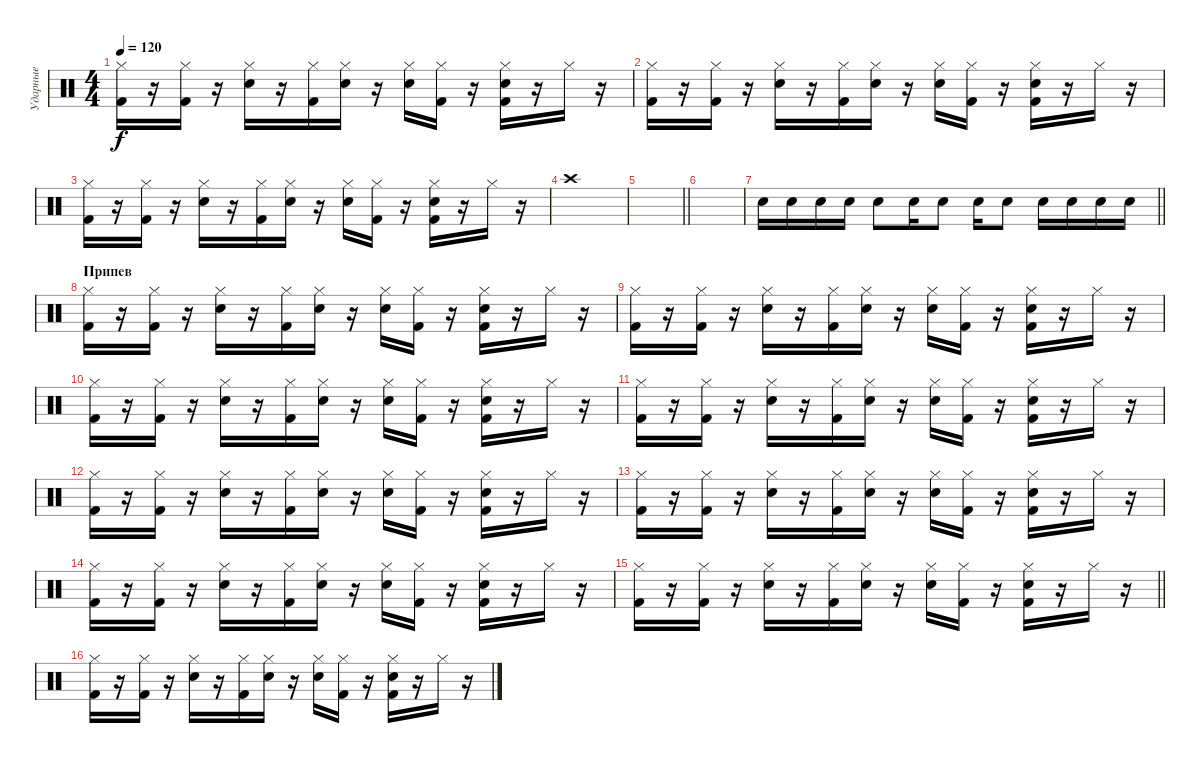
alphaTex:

\track ("Ударные" "Ударные") {instrument percussion}
\staff {score}
\articulation defaults
\ts (4 4)
\tempo 120
\clef neutral
\ks c
("Hi-Hat (closed)" "Kick (hit) 2").16{dy f} r.16 ("Hi-Hat (closed)" "Kick (hit) 2").16 r.16 ("Hi-Hat (closed)" "Electric Snare (hit)").16 r.16 ("Hi-Hat (closed)" "Kick (hit) 2").16 ("Hi-Hat (closed)" "Electric Snare (hit)").16 r.16 ("Hi-Hat (closed)" "Electric Snare (hit)").16 ("Hi-Hat (closed)" "Kick (hit) 2").16 r.16 ("Hi-Hat (closed)" "Electric Snare (hit)" "Kick (hit) 2").16 r.16 "Hi-Hat (closed)".16 r.16 |
("Hi-Hat (closed)" "Kick (hit) 2").16 r.16 ("Hi-Hat (closed)" "Kick (hit) 2").16 r.16 ("Hi-Hat (closed)" "Electric Snare (hit)").16 r.16 ("Hi-Hat (closed)" "Kick (hit) 2").16 ("Hi-Hat (closed)" "Electric Snare (hit)").16 r.16 ("Hi-Hat (closed)" "Electric Snare (hit)").16 ("Hi-Hat (closed)" "Kick (hit) 2").16 r.16 ("Hi-Hat (closed)" "Electric Snare (hit)" "Kick (hit) 2").16 r.16 "Hi-Hat (closed)".16 r.16 |
("Hi-Hat (closed)" "Kick (hit) 2").16 r.16 ("Hi-Hat (closed)" "Kick (hit) 2").16 r.16 ("Hi-Hat (closed)" "Electric Snare (hit)").16 r.16 ("Hi-Hat (closed)" "Kick (hit) 2").16 ("Hi-Hat (closed)" "Electric Snare (hit)").16 r.16 ("Hi-Hat (closed)" "Electric Snare (hit)").16 ("Hi-Hat (closed)" "Kick (hit) 2").16 r.16 ("Hi-Hat (closed)" "Electric Snare (hit)" "Kick (hit) 2").16 r.16 "Hi-Hat (closed)".16 r.16 |
"Crash high (hit)".1 |
\barLineRight lightlight
|
|
\barLineRight lightlight "Snare (hit) 2".16 "Snare (hit) 2".16 "Snare (hit) 2".16 "Snare (hit) 2".16 "Electric Snare (hit)".8 "Snare (hit) 2".16 "Electric Snare (hit)".8 "Snare (hit) 2".16 "Electric Snare (hit)".8 "Electric Snare (hit)".16 "Electric Snare (hit)".16 "Electric Snare (hit)".16 "Electric Snare (hit)".16
|
\section ("" "Припев")
("Hi-Hat (closed)" "Kick (hit) 2").16 r.16 ("Hi-Hat (closed)" "Kick (hit) 2").16 r.16 ("Hi-Hat (closed)" "Electric Snare (hit)").16 r.16 ("Hi-Hat (closed)" "Kick (hit) 2").16 ("Hi-Hat (closed)" "Electric Snare (hit)").16 r.16 ("Hi-Hat (closed)" "Electric Snare (hit)").16 ("Hi-Hat (closed)" "Kick (hit) 2").16 r.16 ("Hi-Hat (closed)" "Electric Snare (hit)" "Kick (hit) 2").16 r.16 "Hi-Hat (closed)".16 r.16 |
("Hi-Hat (closed)" "Kick (hit) 2").16 r.16 ("Hi-Hat (closed)" "Kick (hit) 2").16 r.16 ("Hi-Hat (closed)" "Electric Snare (hit)").16 r.16 ("Hi-Hat (closed)" "Kick (hit) 2").16 ("Hi-Hat (closed)" "Electric Snare (hit)").16 r.16 ("Hi-Hat (closed)" "Electric Snare (hit)").16 ("Hi-Hat (closed)" "Kick (hit) 2").16 r.16 ("Hi-Hat (closed)" "Electric Snare (hit)" "Kick (hit) 2").16 r.16 "Hi-Hat (closed)".16 r.16 |
("Hi-Hat (closed)" "Kick (hit) 2").16 r.16 ("Hi-Hat (closed)" "Kick (hit) 2").16 r.16 ("Hi-Hat (closed)" "Electric Snare (hit)").16 r.16 ("Hi-Hat (closed)" "Kick (hit) 2").16 ("Hi-Hat (closed)" "Electric Snare (hit)").16 r.16 ("Hi-Hat (closed)" "Electric Snare (hit)").16 ("Hi-Hat (closed)" "Kick (hit) 2").16 r.16 ("Hi-Hat (closed)" "Electric Snare (hit)" "Kick (hit) 2").16 r.16 "Hi-Hat (closed)".16 r.16 |
("Hi-Hat (closed)" "Kick (hit) 2").16 r.16 ("Hi-Hat (closed)" "Kick (hit) 2").16 r.16 ("Hi-Hat (closed)" "Electric Snare (hit)").16 r.16 ("Hi-Hat (closed)" "Kick (hit) 2").16 ("Hi-Hat (closed)" "Electric Snare (hit)").16 r.16 ("Hi-Hat (closed)" "Electric Snare (hit)").16 ("Hi-Hat (closed)" "Kick (hit) 2").16 r.16 ("Hi-Hat (closed)" "Electric Snare (hit)" "Kick (hit) 2").16 r.16 "Hi-Hat (closed)".16 r.16 |
("Hi-Hat (closed)" "Kick (hit) 2").16 r.16 ("Hi-Hat (closed)" "Kick (hit) 2").16 r.16 ("Hi-Hat (closed)" "Electric Snare (hit)").16 r.16 ("Hi-Hat (closed)" "Kick (hit) 2").16 ("Hi-Hat (closed)" "Electric Snare (hit)").16 r.16 ("Hi-Hat (closed)" "Electric Snare (hit)").16 ("Hi-Hat (closed)" "Kick (hit) 2").16 r.16 ("Hi-Hat (closed)" "Electric Snare (hit)" "Kick (hit) 2").16 r.16 "Hi-Hat (closed)".16 r.16 |
("Hi-Hat (closed)" "Kick (hit) 2").16 r.16 ("Hi-Hat (closed)" "Kick (hit) 2").16 r.16 ("Hi-Hat (closed)" "Electric Snare (hit)").16 r.16 ("Hi-Hat (closed)" "Kick (hit) 2").16 ("Hi-Hat (closed)" "Electric Snare (hit)").16 r.16 ("Hi-Hat (closed)" "Electric Snare (hit)").16 ("Hi-Hat (closed)" "Kick (hit) 2").16 r.16 ("Hi-Hat (closed)" "Electric Snare (hit)" "Kick (hit) 2").16 r.16 "Hi-Hat (closed)".16 r.16 |
("Hi-Hat (closed)" "Kick (hit) 2").16 r.16 ("Hi-Hat (closed)" "Kick (hit) 2").16 r.16 ("Hi-Hat (closed)" "Electric Snare (hit)").16 r.16 ("Hi-Hat (closed)" "Kick (hit) 2").16 ("Hi-Hat (closed)" "Electric Snare (hit)").16 r.16 ("Hi-Hat (closed)" "Electric Snare (hit)").16 ("Hi-Hat (closed)" "Kick (hit) 2").16 r.16 ("Hi-Hat (closed)" "Electric Snare (hit)" "Kick (hit) 2").16 r.16 "Hi-Hat (closed)".16 r.16 |
\barLineRight lightlight
("Hi-Hat (closed)" "Kick (hit) 2").16 r.16 ("Hi-Hat (closed)" "Kick (hit) 2").16 r.16 ("Hi-Hat (closed)" "Electric Snare (hit)").16 r.16 ("Hi-Hat (closed)" "Kick (hit) 2").16 ("Hi-Hat (closed)" "Electric Snare (hit)").16 r.16 ("Hi-Hat (closed)" "Electric Snare (hit)").16 ("Hi-Hat (closed)" "Kick (hit) 2").16 r.16 ("Hi-Hat (closed)" "Electric Snare (hit)" "Kick (hit) 2").16 r.16 "Hi-Hat (closed)".16 r.16 |
("Hi-Hat (closed)" "Kick (hit) 2").16 r.16 ("Hi-Hat (closed)" "Kick (hit) 2").16 r.16 ("Hi-Hat (closed)" "Electric Snare (hit)").16 r.16 ("Hi-Hat (closed)" "Kick (hit) 2").16 ("Hi-Hat (closed)" "Electric Snare (hit)").16 r.16 ("Hi-Hat (closed)" "Electric Snare (hit)").16 ("Hi-Hat (closed)" "Kick (hit) 2").16 r.16 ("Hi-Hat (closed)" "Electric Snare (hit)" "Kick (hit) 2").16 r.16 "Hi-Hat (closed)".16 r.16
